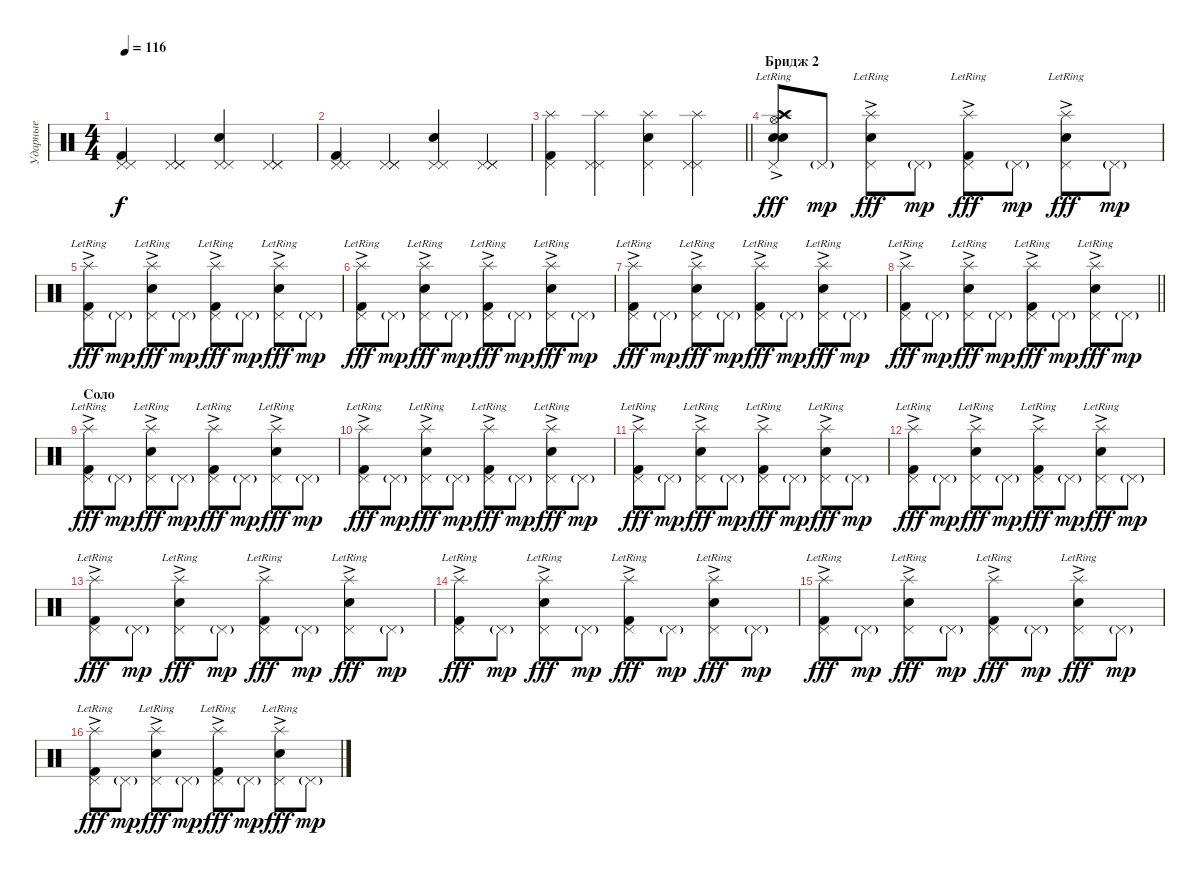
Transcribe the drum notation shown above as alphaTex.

\track ("Ударные" "Ударные") {instrument percussion}
\staff {score}
\articulation defaults
\ts (4 4)
\tempo 116
\clef neutral
\ks c
("Kick (hit) 2" "Pedal Hi-Hat (hit)" "Pedal Hi-Hat (hit)").4{dy f} ("Pedal Hi-Hat (hit)" "Pedal Hi-Hat (hit)" "Pedal Hi-Hat (hit)").4 ("Snare (hit) 2" "Pedal Hi-Hat (hit)" "Pedal Hi-Hat (hit)").4 ("Pedal Hi-Hat (hit)" "Pedal Hi-Hat (hit)" "Pedal Hi-Hat (hit)").4 |
("Kick (hit) 2" "Pedal Hi-Hat (hit)" "Pedal Hi-Hat (hit)").4 ("Pedal Hi-Hat (hit)" "Pedal Hi-Hat (hit)" "Pedal Hi-Hat (hit)").4 ("Snare (hit) 2" "Pedal Hi-Hat (hit)" "Pedal Hi-Hat (hit)").4 ("Pedal Hi-Hat (hit)" "Pedal Hi-Hat (hit)" "Pedal Hi-Hat (hit)").4 |
\barLineRight lightlight
("Kick (hit) 2" "Pedal Hi-Hat (hit)" "Splash (hit)").4 ("Pedal Hi-Hat (hit)" "Pedal Hi-Hat (hit)" "Splash (hit)").4 ("Snare (hit) 2" "Pedal Hi-Hat (hit)" "Splash (hit)").4 ("Pedal Hi-Hat (hit)" "Pedal Hi-Hat (hit)" "Splash (hit)").4 |
\section ("" "Бридж 2")
("Hi-Hat (open)" "Crash high (hit)" "Splash (hit)"{ac lr} "Snare (hit) 2"{ac} "Pedal Hi-Hat (hit)"{lr} "Electric Snare (hit)").8{dy fff volume 12} "Pedal Hi-Hat (hit)"{g}.8{dy mp} ("Splash (hit)"{ac lr} "Snare (hit) 2"{ac} "Pedal Hi-Hat (hit)").8{dy fff} "Pedal Hi-Hat (hit)"{g}.8{dy mp} ("Splash (hit)"{ac lr} "Kick (hit) 2" "Pedal Hi-Hat (hit)").8{dy fff} "Pedal Hi-Hat (hit)"{g}.8{dy mp} ("Splash (hit)"{ac lr} "Snare (hit) 2"{ac} "Pedal Hi-Hat (hit)").8{dy fff} "Pedal Hi-Hat (hit)"{g}.8{dy mp} |
("Splash (hit)"{ac lr} "Kick (hit) 2" "Pedal Hi-Hat (hit)"{lr}).8{dy fff} "Pedal Hi-Hat (hit)"{g}.8{dy mp} ("Splash (hit)"{ac lr} "Snare (hit) 2"{ac} "Pedal Hi-Hat (hit)").8{dy fff} "Pedal Hi-Hat (hit)"{g}.8{dy mp} ("Splash (hit)"{ac lr} "Kick (hit) 2" "Pedal Hi-Hat (hit)").8{dy fff} "Pedal Hi-Hat (hit)"{g}.8{dy mp} ("Splash (hit)"{ac lr} "Snare (hit) 2"{ac} "Pedal Hi-Hat (hit)").8{dy fff} "Pedal Hi-Hat (hit)"{g}.8{dy mp} |
("Splash (hit)"{ac lr} "Kick (hit) 2" "Pedal Hi-Hat (hit)"{lr}).8{dy fff} "Pedal Hi-Hat (hit)"{g}.8{dy mp} ("Splash (hit)"{ac lr} "Snare (hit) 2"{ac} "Pedal Hi-Hat (hit)").8{dy fff} "Pedal Hi-Hat (hit)"{g}.8{dy mp} ("Splash (hit)"{ac lr} "Kick (hit) 2" "Pedal Hi-Hat (hit)").8{dy fff} "Pedal Hi-Hat (hit)"{g}.8{dy mp} ("Splash (hit)"{ac lr} "Snare (hit) 2"{ac} "Pedal Hi-Hat (hit)").8{dy fff} "Pedal Hi-Hat (hit)"{g}.8{dy mp} |
("Splash (hit)"{ac lr} "Kick (hit) 2" "Pedal Hi-Hat (hit)"{lr}).8{dy fff} "Pedal Hi-Hat (hit)"{g}.8{dy mp} ("Splash (hit)"{ac lr} "Snare (hit) 2"{ac} "Pedal Hi-Hat (hit)").8{dy fff} "Pedal Hi-Hat (hit)"{g}.8{dy mp} ("Splash (hit)"{ac lr} "Kick (hit) 2" "Pedal Hi-Hat (hit)").8{dy fff} "Pedal Hi-Hat (hit)"{g}.8{dy mp} ("Splash (hit)"{ac lr} "Snare (hit) 2"{ac} "Pedal Hi-Hat (hit)").8{dy fff} "Pedal Hi-Hat (hit)"{g}.8{dy mp} |
\barLineRight lightlight
("Splash (hit)"{ac lr} "Kick (hit) 2" "Pedal Hi-Hat (hit)"{lr}).8{dy fff} "Pedal Hi-Hat (hit)"{g}.8{dy mp} ("Splash (hit)"{ac lr} "Snare (hit) 2"{ac} "Pedal Hi-Hat (hit)").8{dy fff} "Pedal Hi-Hat (hit)"{g}.8{dy mp} ("Splash (hit)"{ac lr} "Kick (hit) 2" "Pedal Hi-Hat (hit)").8{dy fff} "Pedal Hi-Hat (hit)"{g}.8{dy mp} ("Splash (hit)"{ac lr} "Snare (hit) 2"{ac} "Pedal Hi-Hat (hit)").8{dy fff} "Pedal Hi-Hat (hit)"{g}.8{dy mp} |
\section ("" "Соло")
("Splash (hit)"{ac lr} "Kick (hit) 2" "Pedal Hi-Hat (hit)"{lr}).8{dy fff} "Pedal Hi-Hat (hit)"{g}.8{dy mp} ("Splash (hit)"{ac lr} "Snare (hit) 2"{ac} "Pedal Hi-Hat (hit)").8{dy fff} "Pedal Hi-Hat (hit)"{g}.8{dy mp} ("Splash (hit)"{ac lr} "Kick (hit) 2" "Pedal Hi-Hat (hit)").8{dy fff} "Pedal Hi-Hat (hit)"{g}.8{dy mp} ("Splash (hit)"{ac lr} "Snare (hit) 2"{ac} "Pedal Hi-Hat (hit)").8{dy fff} "Pedal Hi-Hat (hit)"{g}.8{dy mp} |
("Splash (hit)"{ac lr} "Kick (hit) 2" "Pedal Hi-Hat (hit)"{lr}).8{dy fff} "Pedal Hi-Hat (hit)"{g}.8{dy mp} ("Splash (hit)"{ac lr} "Snare (hit) 2"{ac} "Pedal Hi-Hat (hit)").8{dy fff} "Pedal Hi-Hat (hit)"{g}.8{dy mp} ("Splash (hit)"{ac lr} "Kick (hit) 2" "Pedal Hi-Hat (hit)").8{dy fff} "Pedal Hi-Hat (hit)"{g}.8{dy mp} ("Splash (hit)"{ac lr} "Snare (hit) 2"{ac} "Pedal Hi-Hat (hit)").8{dy fff} "Pedal Hi-Hat (hit)"{g}.8{dy mp} |
("Splash (hit)"{ac lr} "Kick (hit) 2" "Pedal Hi-Hat (hit)"{lr}).8{dy fff} "Pedal Hi-Hat (hit)"{g}.8{dy mp} ("Splash (hit)"{ac lr} "Snare (hit) 2"{ac} "Pedal Hi-Hat (hit)").8{dy fff} "Pedal Hi-Hat (hit)"{g}.8{dy mp} ("Splash (hit)"{ac lr} "Kick (hit) 2" "Pedal Hi-Hat (hit)").8{dy fff} "Pedal Hi-Hat (hit)"{g}.8{dy mp} ("Splash (hit)"{ac lr} "Snare (hit) 2"{ac} "Pedal Hi-Hat (hit)").8{dy fff} "Pedal Hi-Hat (hit)"{g}.8{dy mp} |
("Splash (hit)"{ac lr} "Kick (hit) 2" "Pedal Hi-Hat (hit)"{lr}).8{dy fff} "Pedal Hi-Hat (hit)"{g}.8{dy mp} ("Splash (hit)"{ac lr} "Snare (hit) 2"{ac} "Pedal Hi-Hat (hit)").8{dy fff} "Pedal Hi-Hat (hit)"{g}.8{dy mp} ("Splash (hit)"{ac lr} "Kick (hit) 2" "Pedal Hi-Hat (hit)").8{dy fff} "Pedal Hi-Hat (hit)"{g}.8{dy mp} ("Splash (hit)"{ac lr} "Snare (hit) 2"{ac} "Pedal Hi-Hat (hit)").8{dy fff} "Pedal Hi-Hat (hit)"{g}.8{dy mp} |
("Splash (hit)"{ac lr} "Kick (hit) 2" "Pedal Hi-Hat (hit)"{lr}).8{dy fff} "Pedal Hi-Hat (hit)"{g}.8{dy mp} ("Splash (hit)"{ac lr} "Snare (hit) 2"{ac} "Pedal Hi-Hat (hit)").8{dy fff} "Pedal Hi-Hat (hit)"{g}.8{dy mp} ("Splash (hit)"{ac lr} "Kick (hit) 2" "Pedal Hi-Hat (hit)").8{dy fff} "Pedal Hi-Hat (hit)"{g}.8{dy mp} ("Splash (hit)"{ac lr} "Snare (hit) 2"{ac} "Pedal Hi-Hat (hit)").8{dy fff} "Pedal Hi-Hat (hit)"{g}.8{dy mp} |
("Splash (hit)"{ac lr} "Kick (hit) 2" "Pedal Hi-Hat (hit)"{lr}).8{dy fff} "Pedal Hi-Hat (hit)"{g}.8{dy mp} ("Splash (hit)"{ac lr} "Snare (hit) 2"{ac} "Pedal Hi-Hat (hit)").8{dy fff} "Pedal Hi-Hat (hit)"{g}.8{dy mp} ("Splash (hit)"{ac lr} "Kick (hit) 2" "Pedal Hi-Hat (hit)").8{dy fff} "Pedal Hi-Hat (hit)"{g}.8{dy mp} ("Splash (hit)"{ac lr} "Snare (hit) 2"{ac} "Pedal Hi-Hat (hit)").8{dy fff} "Pedal Hi-Hat (hit)"{g}.8{dy mp} |
("Splash (hit)"{ac lr} "Kick (hit) 2" "Pedal Hi-Hat (hit)"{lr}).8{dy fff} "Pedal Hi-Hat (hit)"{g}.8{dy mp} ("Splash (hit)"{ac lr} "Snare (hit) 2"{ac} "Pedal Hi-Hat (hit)").8{dy fff} "Pedal Hi-Hat (hit)"{g}.8{dy mp} ("Splash (hit)"{ac lr} "Kick (hit) 2" "Pedal Hi-Hat (hit)").8{dy fff} "Pedal Hi-Hat (hit)"{g}.8{dy mp} ("Splash (hit)"{ac lr} "Snare (hit) 2"{ac} "Pedal Hi-Hat (hit)").8{dy fff} "Pedal Hi-Hat (hit)"{g}.8{dy mp} |
("Splash (hit)"{ac lr} "Kick (hit) 2" "Pedal Hi-Hat (hit)"{lr}).8{dy fff} "Pedal Hi-Hat (hit)"{g}.8{dy mp} ("Splash (hit)"{ac lr} "Snare (hit) 2"{ac} "Pedal Hi-Hat (hit)").8{dy fff} "Pedal Hi-Hat (hit)"{g}.8{dy mp} ("Splash (hit)"{ac lr} "Kick (hit) 2" "Pedal Hi-Hat (hit)").8{dy fff} "Pedal Hi-Hat (hit)"{g}.8{dy mp} ("Splash (hit)"{ac lr} "Snare (hit) 2"{ac} "Pedal Hi-Hat (hit)").8{dy fff} "Pedal Hi-Hat (hit)"{g}.8{dy mp}
